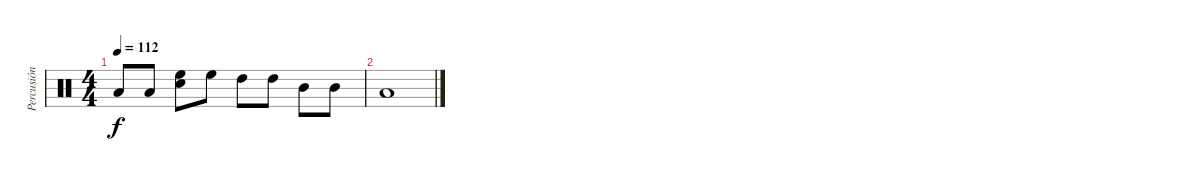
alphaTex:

\track ("Percusión" "Percusión") {instrument percussion}
\staff {score}
\articulation defaults
\ts (4 4)
\tempo 112
\clef neutral
\ks c "Low Tom (hit)".8{dy f} "Low Tom (hit)".8
("High Floor Tom (hit)" "Electric Snare (hit)").8 "High Floor Tom (hit)".8 "High Tom (hit)".8 "High Tom (hit)".8 "Mid Tom (hit)".8 "Mid Tom (hit)".8 |
"Low Tom (hit)".1
